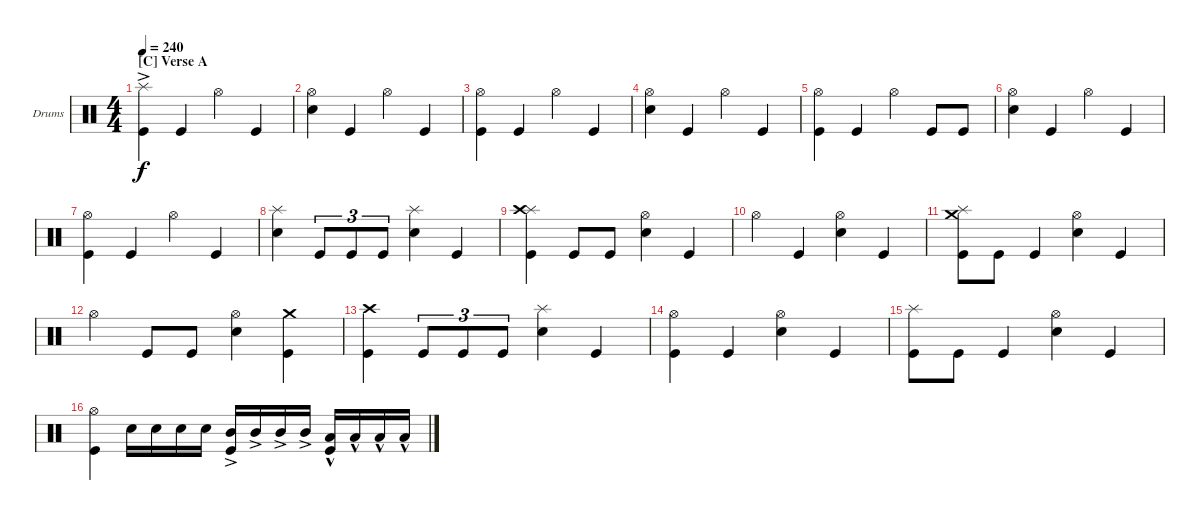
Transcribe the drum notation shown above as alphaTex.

\defaultSystemsLayout 4
\bracketExtendMode groupsimilarinstruments
\firstSystemTrackNameOrientation horizontal
\otherSystemsTrackNameOrientation horizontal
\track ("Drumkit" "Drums") {instrument percussion}
\staff {score}
\articulation defaults
\ts (4 4)
\section ("C" "Verse A")
\tempo 240
\clef neutral
\ks c
("Kick (hit)" "Splash (hit)"{ac}).4{dy f} "Kick (hit)".4 "Hi-Hat (open)".4 "Kick (hit)".4 |
("Snare (hit) 2" "Hi-Hat (open)").4 "Kick (hit)".4 "Hi-Hat (open)".4 "Kick (hit)".4 |
("Kick (hit)" "Hi-Hat (open)").4 "Kick (hit)".4 "Hi-Hat (open)".4 "Kick (hit)".4 |
("Snare (hit) 2" "Hi-Hat (open)").4 "Kick (hit)".4 "Hi-Hat (open)".4 "Kick (hit)".4 |
("Kick (hit)" "Hi-Hat (open)").4 "Kick (hit)".4 "Hi-Hat (open)".4 "Kick (hit)".8 "Kick (hit)".8 |
("Snare (hit) 2" "Hi-Hat (open)").4 "Kick (hit)".4 "Hi-Hat (open)".4 "Kick (hit)".4 |
("Kick (hit)" "Hi-Hat (open)").4 "Kick (hit)".4 "Hi-Hat (open)".4 "Kick (hit)".4 |
("Snare (hit) 2" "Splash (hit)").4 "Kick (hit)".8{tu (3 2)} "Kick (hit)".8{tu (3 2)} "Kick (hit)".8{tu (3 2)} ("Snare (hit) 2" "Splash (hit)").4 "Kick (hit)".4 |
("Splash (hit)" "Kick (hit)" "Crash high (hit)").4 "Kick (hit)".8 "Kick (hit)".8 ("Snare (hit) 2" "Hi-Hat (open)").4 "Kick (hit)".4 |
"Hi-Hat (open)".4 "Kick (hit)".4 ("Snare (hit) 2" "Hi-Hat (open)").4 "Kick (hit)".4 |
("Kick (hit)" "Splash (hit)" "Crash medium (hit)").8 "Kick (hit)".8 "Kick (hit)".4 ("Snare (hit) 2" "Hi-Hat (open)").4 "Kick (hit)".4 |
"Hi-Hat (open)".4 "Kick (hit)".8 "Kick (hit)".8 ("Snare (hit) 2" "Hi-Hat (open)").4 ("Kick (hit)" "Crash medium (hit)").4 |
("Kick (hit)" "Crash high (hit)").4 "Kick (hit)".8{tu (3 2)} "Kick (hit)".8{tu (3 2)} "Kick (hit)".8{tu (3 2)} ("Snare (hit) 2" "Splash (hit)").4 "Kick (hit)".4 |
("Kick (hit)" "Hi-Hat (open)").4 "Kick (hit)".4 ("Hi-Hat (open)" "Snare (hit) 2").4 "Kick (hit)".4 |
("Kick (hit)" "Splash (hit)").8 "Kick (hit)".8 "Kick (hit)".4 ("Snare (hit) 2" "Hi-Hat (open)").4 "Kick (hit)".4 |
("Kick (hit)" "Hi-Hat (open)").4 "Snare (hit) 2".16 "Snare (hit) 2".16 "Snare (hit) 2".16 "Snare (hit) 2".16 ("Mid Tom (hit)"{ac} "Kick (hit)").16 "Mid Tom (hit)"{ac}.16 "Mid Tom (hit)"{ac}.16 "Mid Tom (hit)"{ac}.16 ("Low Tom (hit)"{hac} "Kick (hit)").16 "Low Tom (hit)"{hac}.16 "Low Tom (hit)"{hac}.16 "Low Tom (hit)"{hac}.16
